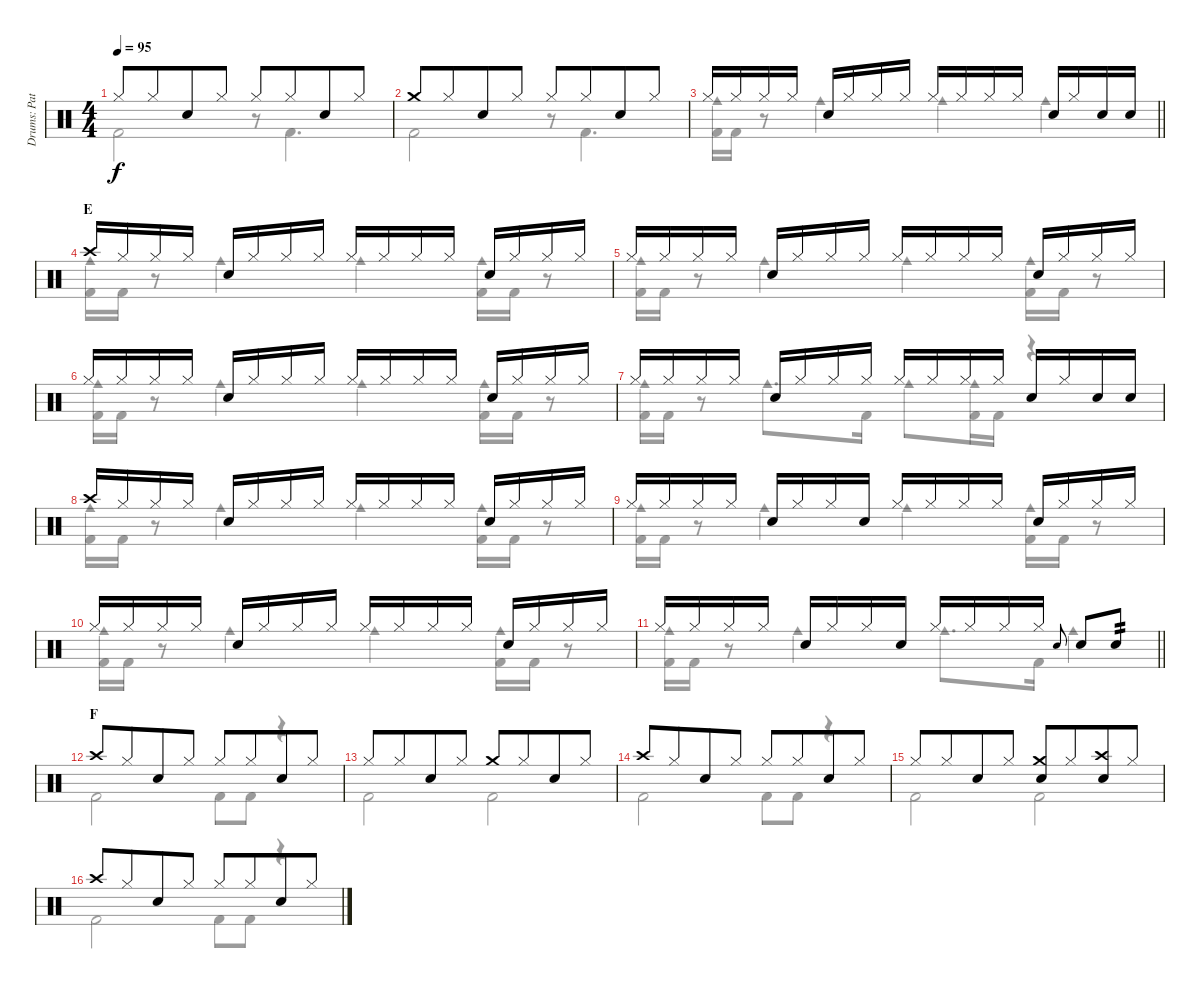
\track ("Drums: Pat" "Drums: Pat") {instrument percussion}
\staff {score}
\articulation defaults
\voice
\ts (4 4)
\tempo 95
\clef neutral
\ks c "Hi-Hat (closed)".8{dy f} "Hi-Hat (closed)".8{beam merge} "Snare (hit) 2".8 "Hi-Hat (closed)".8 "Hi-Hat (closed)".8 "Hi-Hat (closed)".8{beam merge} "Snare (hit) 2".8 "Hi-Hat (closed)".8
|
"Crash medium (hit)".8 "Hi-Hat (closed)".8{beam merge} "Snare (hit) 2".8 "Hi-Hat (closed)".8 "Hi-Hat (closed)".8 "Hi-Hat (closed)".8{beam merge} "Snare (hit) 2".8 "Hi-Hat (closed)".8 |
\barLineRight lightlight "Hi-Hat (closed)".16 "Hi-Hat (closed)".16 "Hi-Hat (closed)".16 "Hi-Hat (closed)".16 "Snare (hit) 2".16 "Hi-Hat (closed)".16 "Hi-Hat (closed)".16 "Hi-Hat (closed)".16 "Hi-Hat (closed)".16 "Hi-Hat (closed)".16 "Hi-Hat (closed)".16 "Hi-Hat (closed)".16 "Snare (hit) 2".16 "Hi-Hat (closed)".16 "Snare (hit) 2".16 "Snare (hit) 2".16
|
\section ("" "E")
"Crash high (hit)".16 "Hi-Hat (closed)".16 "Hi-Hat (closed)".16 "Hi-Hat (closed)".16 "Snare (hit) 2".16 "Hi-Hat (closed)".16 "Hi-Hat (closed)".16 "Hi-Hat (closed)".16 "Hi-Hat (closed)".16 "Hi-Hat (closed)".16 "Hi-Hat (closed)".16 "Hi-Hat (closed)".16 "Snare (hit) 2".16 "Hi-Hat (closed)".16 "Hi-Hat (closed)".16 "Hi-Hat (closed)".16 |
"Hi-Hat (closed)".16 "Hi-Hat (closed)".16 "Hi-Hat (closed)".16 "Hi-Hat (closed)".16 "Snare (hit) 2".16 "Hi-Hat (closed)".16 "Hi-Hat (closed)".16 "Hi-Hat (closed)".16 "Hi-Hat (closed)".16 "Hi-Hat (closed)".16 "Hi-Hat (closed)".16 "Hi-Hat (closed)".16 "Snare (hit) 2".16 "Hi-Hat (closed)".16 "Hi-Hat (closed)".16 "Hi-Hat (closed)".16 |
"Hi-Hat (closed)".16 "Hi-Hat (closed)".16 "Hi-Hat (closed)".16 "Hi-Hat (closed)".16 "Snare (hit) 2".16 "Hi-Hat (closed)".16 "Hi-Hat (closed)".16 "Hi-Hat (closed)".16 "Hi-Hat (closed)".16 "Hi-Hat (closed)".16 "Hi-Hat (closed)".16 "Hi-Hat (closed)".16 "Snare (hit) 2".16 "Hi-Hat (closed)".16 "Hi-Hat (closed)".16 "Hi-Hat (closed)".16 |
"Hi-Hat (closed)".16 "Hi-Hat (closed)".16 "Hi-Hat (closed)".16 "Hi-Hat (closed)".16 "Snare (hit) 2".16 "Hi-Hat (closed)".16 "Hi-Hat (closed)".16 "Hi-Hat (closed)".16 "Hi-Hat (closed)".16 "Hi-Hat (closed)".16 "Hi-Hat (closed)".16 "Hi-Hat (closed)".16 "Snare (hit) 2".16 "Hi-Hat (closed)".16 "Snare (hit) 2".16 "Snare (hit) 2".16 |
"Crash high (hit)".16 "Hi-Hat (closed)".16 "Hi-Hat (closed)".16 "Hi-Hat (closed)".16 "Snare (hit) 2".16 "Hi-Hat (closed)".16 "Hi-Hat (closed)".16 "Hi-Hat (closed)".16 "Hi-Hat (closed)".16 "Hi-Hat (closed)".16 "Hi-Hat (closed)".16 "Hi-Hat (closed)".16 "Snare (hit) 2".16 "Hi-Hat (closed)".16 "Hi-Hat (closed)".16 "Hi-Hat (closed)".16 |
"Hi-Hat (closed)".16 "Hi-Hat (closed)".16 "Hi-Hat (closed)".16 "Hi-Hat (closed)".16 "Snare (hit) 2".16 "Hi-Hat (closed)".16 "Hi-Hat (closed)".16 "Snare (hit) 2".16 "Hi-Hat (closed)".16 "Hi-Hat (closed)".16 "Hi-Hat (closed)".16 "Hi-Hat (closed)".16 "Snare (hit) 2".16 "Hi-Hat (closed)".16 "Hi-Hat (closed)".16 "Hi-Hat (closed)".16 |
"Hi-Hat (closed)".16 "Hi-Hat (closed)".16 "Hi-Hat (closed)".16 "Hi-Hat (closed)".16 "Snare (hit) 2".16 "Hi-Hat (closed)".16 "Hi-Hat (closed)".16 "Hi-Hat (closed)".16 "Hi-Hat (closed)".16 "Hi-Hat (closed)".16 "Hi-Hat (closed)".16 "Hi-Hat (closed)".16 "Snare (hit) 2".16 "Hi-Hat (closed)".16 "Hi-Hat (closed)".16 "Hi-Hat (closed)".16 |
\barLineRight lightlight "Hi-Hat (closed)".16 "Hi-Hat (closed)".16 "Hi-Hat (closed)".16 "Hi-Hat (closed)".16 "Snare (hit) 2".16 "Hi-Hat (closed)".16 "Hi-Hat (closed)".16 "Snare (hit) 2".16 "Hi-Hat (closed)".16 "Hi-Hat (closed)".16 "Hi-Hat (closed)".16 "Hi-Hat (closed)".16 "Electric Snare (hit)".8{gr onbeat} "Snare (hit) 2".8 "Snare (hit) 2".8{tp 2}
|
\section ("" "F")
"Crash high (hit)".8 "Hi-Hat (closed)".8{beam merge} "Snare (hit) 2".8 "Hi-Hat (closed)".8 "Hi-Hat (closed)".8 "Hi-Hat (closed)".8{beam merge} "Snare (hit) 2".8 "Hi-Hat (closed)".8 |
"Hi-Hat (closed)".8 "Hi-Hat (closed)".8{beam merge} "Snare (hit) 2".8 "Hi-Hat (closed)".8 "Crash medium (hit)".8 "Hi-Hat (closed)".8{beam merge} "Snare (hit) 2".8 "Hi-Hat (closed)".8 |
"Crash high (hit)".8 "Hi-Hat (closed)".8{beam merge} "Snare (hit) 2".8 "Hi-Hat (closed)".8 "Hi-Hat (closed)".8 "Hi-Hat (closed)".8{beam merge} "Snare (hit) 2".8 "Hi-Hat (closed)".8 |
"Hi-Hat (closed)".8 "Hi-Hat (closed)".8{beam merge} "Snare (hit) 2".8 "Hi-Hat (closed)".8 ("Crash medium (hit)" "Snare (hit) 2").8 "Hi-Hat (closed)".8{beam merge} ("Crash high (hit)" "Snare (hit) 2").8 "Hi-Hat (closed)".8 |
"Crash high (hit)".8 "Hi-Hat (closed)".8{beam merge} "Snare (hit) 2".8 "Hi-Hat (closed)".8 "Hi-Hat (closed)".8 "Hi-Hat (closed)".8{beam merge} "Snare (hit) 2".8 "Hi-Hat (closed)".8
\voice
\clef neutral
\ottava regular
\simile none
\ks c "Kick (hit) 2".2{dy f}
r.8 "Kick (hit) 2".4{d} |
"Kick (hit) 2".2 r.8 "Kick (hit) 2".4{d} |
\barLineRight lightlight
("Kick (hit) 2" "Cowbell medium (hit)").16 "Kick (hit) 2".16 r.8 "Cowbell medium (hit)".4 "Cowbell medium (hit)".4 "Cowbell medium (hit)".4 |
("Kick (hit) 2" "Cowbell medium (hit)").16 "Kick (hit) 2".16 r.8 "Cowbell medium (hit)".4 "Cowbell medium (hit)".4 ("Kick (hit) 2" "Cowbell medium (hit)").16 "Kick (hit) 2".16 r.8 |
("Kick (hit) 2" "Cowbell medium (hit)").16 "Kick (hit) 2".16 r.8 "Cowbell medium (hit)".4 "Cowbell medium (hit)".4 ("Kick (hit) 2" "Cowbell medium (hit)").16 "Kick (hit) 2".16 r.8 |
("Kick (hit) 2" "Cowbell medium (hit)").16 "Kick (hit) 2".16 r.8 "Cowbell medium (hit)".4 "Cowbell medium (hit)".4 ("Kick (hit) 2" "Cowbell medium (hit)").16 "Kick (hit) 2".16 r.8 |
("Kick (hit) 2" "Cowbell medium (hit)").16 "Kick (hit) 2".16 r.8 "Cowbell medium (hit)".8{d} "Kick (hit) 2".16 "Cowbell medium (hit)".8 ("Kick (hit) 2" "Cowbell medium (hit)").16 "Kick (hit) 2".16 r.4 |
("Kick (hit) 2" "Cowbell medium (hit)").16 "Kick (hit) 2".16 r.8 "Cowbell medium (hit)".4 "Cowbell medium (hit)".4 ("Kick (hit) 2" "Cowbell medium (hit)").16 "Kick (hit) 2".16 r.8 |
("Kick (hit) 2" "Cowbell medium (hit)").16 "Kick (hit) 2".16 r.8 "Cowbell medium (hit)".4 "Cowbell medium (hit)".4 ("Kick (hit) 2" "Cowbell medium (hit)").16 "Kick (hit) 2".16 r.8 |
("Kick (hit) 2" "Cowbell medium (hit)").16 "Kick (hit) 2".16 r.8 "Cowbell medium (hit)".4 "Cowbell medium (hit)".4 ("Kick (hit) 2" "Cowbell medium (hit)").16 "Kick (hit) 2".16 r.8 |
\barLineRight lightlight
("Kick (hit) 2" "Cowbell medium (hit)").16 "Kick (hit) 2".16 r.8 "Cowbell medium (hit)".4 "Cowbell medium (hit)".8{d} "Kick (hit) 2".16 "Cowbell medium (hit)".4 |
"Kick (hit) 2".2 "Kick (hit) 2".8 "Kick (hit) 2".8 r.4 |
"Kick (hit) 2".2 "Kick (hit) 2".2 |
"Kick (hit) 2".2 "Kick (hit) 2".8 "Kick (hit) 2".8 r.4 |
"Kick (hit) 2".2 "Kick (hit) 2".2 |
"Kick (hit) 2".2 "Kick (hit) 2".8 "Kick (hit) 2".8 r.4
